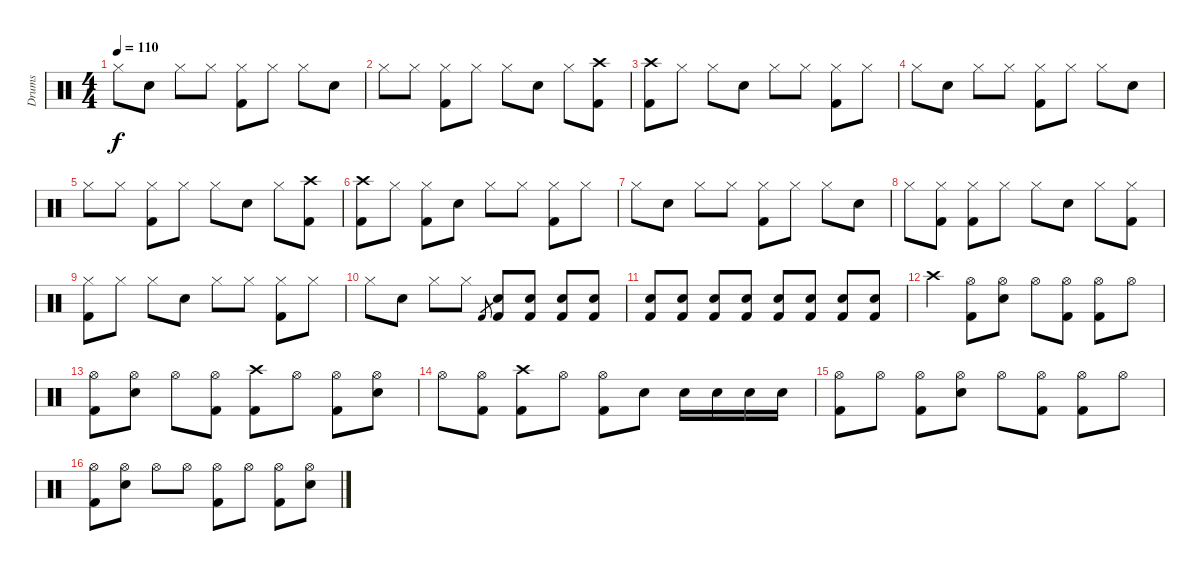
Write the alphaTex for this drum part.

\track ("Drums" "Drums") {instrument percussion}
\staff {score}
\articulation defaults
\ts (4 4)
\tempo 110
\clef neutral
\ks c "Hi-Hat (closed)".8{dy f} "Snare (hit) 2".8 "Hi-Hat (closed)".8 "Hi-Hat (closed)".8
("Hi-Hat (closed)" "Kick (hit) 2").8 "Hi-Hat (closed)".8 "Hi-Hat (closed)".8 "Snare (hit) 2".8 |
"Hi-Hat (closed)".8 "Hi-Hat (closed)".8 ("Hi-Hat (closed)" "Kick (hit) 2").8 "Hi-Hat (closed)".8 "Hi-Hat (closed)".8 "Snare (hit) 2".8 "Hi-Hat (closed)".8 ("Crash high (hit)" "Kick (hit) 2").8 |
("Crash high (hit)" "Kick (hit) 2").8 "Hi-Hat (closed)".8 "Hi-Hat (closed)".8 "Snare (hit) 2".8 "Hi-Hat (closed)".8 "Hi-Hat (closed)".8 ("Hi-Hat (closed)" "Kick (hit) 2").8 "Hi-Hat (closed)".8 |
"Hi-Hat (closed)".8 "Snare (hit) 2".8 "Hi-Hat (closed)".8 "Hi-Hat (closed)".8 ("Hi-Hat (closed)" "Kick (hit) 2").8 "Hi-Hat (closed)".8 "Hi-Hat (closed)".8 "Snare (hit) 2".8 |
"Hi-Hat (closed)".8 "Hi-Hat (closed)".8 ("Hi-Hat (closed)" "Kick (hit) 2").8 "Hi-Hat (closed)".8 "Hi-Hat (closed)".8 "Snare (hit) 2".8 "Hi-Hat (closed)".8 ("Crash high (hit)" "Kick (hit) 2").8 |
("Crash high (hit)" "Kick (hit) 2").8 "Hi-Hat (closed)".8 ("Hi-Hat (closed)" "Kick (hit) 2").8 "Snare (hit) 2".8 "Hi-Hat (closed)".8 "Hi-Hat (closed)".8 ("Hi-Hat (closed)" "Kick (hit) 2").8 "Hi-Hat (closed)".8 |
"Hi-Hat (closed)".8 "Snare (hit) 2".8 "Hi-Hat (closed)".8 "Hi-Hat (closed)".8 ("Hi-Hat (closed)" "Kick (hit) 2").8 "Hi-Hat (closed)".8 "Hi-Hat (closed)".8 "Snare (hit) 2".8 |
"Hi-Hat (closed)".8 ("Hi-Hat (closed)" "Kick (hit) 2").8 ("Hi-Hat (closed)" "Kick (hit) 2").8 "Hi-Hat (closed)".8 "Hi-Hat (closed)".8 "Snare (hit) 2".8 "Hi-Hat (closed)".8 ("Hi-Hat (closed)" "Kick (hit) 2").8 |
("Hi-Hat (closed)" "Kick (hit) 2").8 "Hi-Hat (closed)".8 "Hi-Hat (closed)".8 "Snare (hit) 2".8 "Hi-Hat (closed)".8 "Hi-Hat (closed)".8 ("Hi-Hat (closed)" "Kick (hit) 2").8 "Hi-Hat (closed)".8 |
"Hi-Hat (closed)".8 "Snare (hit) 2".8 "Hi-Hat (closed)".8 "Hi-Hat (closed)".8 "Kick (hit) 2".8{gr} ("Snare (hit) 2" "Kick (hit) 2").8 ("Snare (hit) 2" "Kick (hit) 2").8 ("Snare (hit) 2" "Kick (hit) 2").8 ("Snare (hit) 2" "Kick (hit) 2").8 |
("Snare (hit) 2" "Kick (hit) 2").8 ("Snare (hit) 2" "Kick (hit) 2").8 ("Snare (hit) 2" "Kick (hit) 2").8 ("Snare (hit) 2" "Kick (hit) 2").8 ("Snare (hit) 2" "Kick (hit) 2").8 ("Snare (hit) 2" "Kick (hit) 2").8 ("Snare (hit) 2" "Kick (hit) 2").8 ("Snare (hit) 2" "Kick (hit) 2").8 |
"Crash high (hit)".4 ("Hi-Hat (open)" "Kick (hit) 2").8 ("Hi-Hat (open)" "Snare (hit) 2").8 "Hi-Hat (open)".8 ("Hi-Hat (open)" "Kick (hit) 2").8 ("Hi-Hat (open)" "Kick (hit) 2").8 "Hi-Hat (open)".8 |
("Hi-Hat (open)" "Kick (hit) 2").8 ("Hi-Hat (open)" "Snare (hit) 2").8 "Hi-Hat (open)".8 ("Hi-Hat (open)" "Kick (hit) 2").8 ("Crash high (hit)" "Kick (hit) 2").8 "Hi-Hat (open)".8 ("Hi-Hat (open)" "Kick (hit) 2").8 ("Hi-Hat (open)" "Snare (hit) 2").8 |
"Hi-Hat (open)".8 ("Hi-Hat (open)" "Kick (hit) 2").8 ("Crash high (hit)" "Kick (hit) 2").8 "Hi-Hat (open)".8 ("Hi-Hat (open)" "Kick (hit) 2").8 "Snare (hit) 2".8 "Snare (hit) 2".16 "Snare (hit) 2".16 "Snare (hit) 2".16 "Snare (hit) 2".16 |
("Hi-Hat (open)" "Kick (hit) 2").8 "Hi-Hat (open)".8 ("Hi-Hat (open)" "Kick (hit) 2").8 ("Hi-Hat (open)" "Snare (hit) 2").8 "Hi-Hat (open)".8 ("Hi-Hat (open)" "Kick (hit) 2").8 ("Hi-Hat (open)" "Kick (hit) 2").8 "Hi-Hat (open)".8 |
("Hi-Hat (open)" "Kick (hit) 2").8 ("Hi-Hat (open)" "Snare (hit) 2").8 "Hi-Hat (open)".8 "Hi-Hat (open)".8 ("Hi-Hat (open)" "Kick (hit) 2").8 "Hi-Hat (open)".8 ("Hi-Hat (open)" "Kick (hit) 2").8 ("Hi-Hat (open)" "Snare (hit) 2").8
